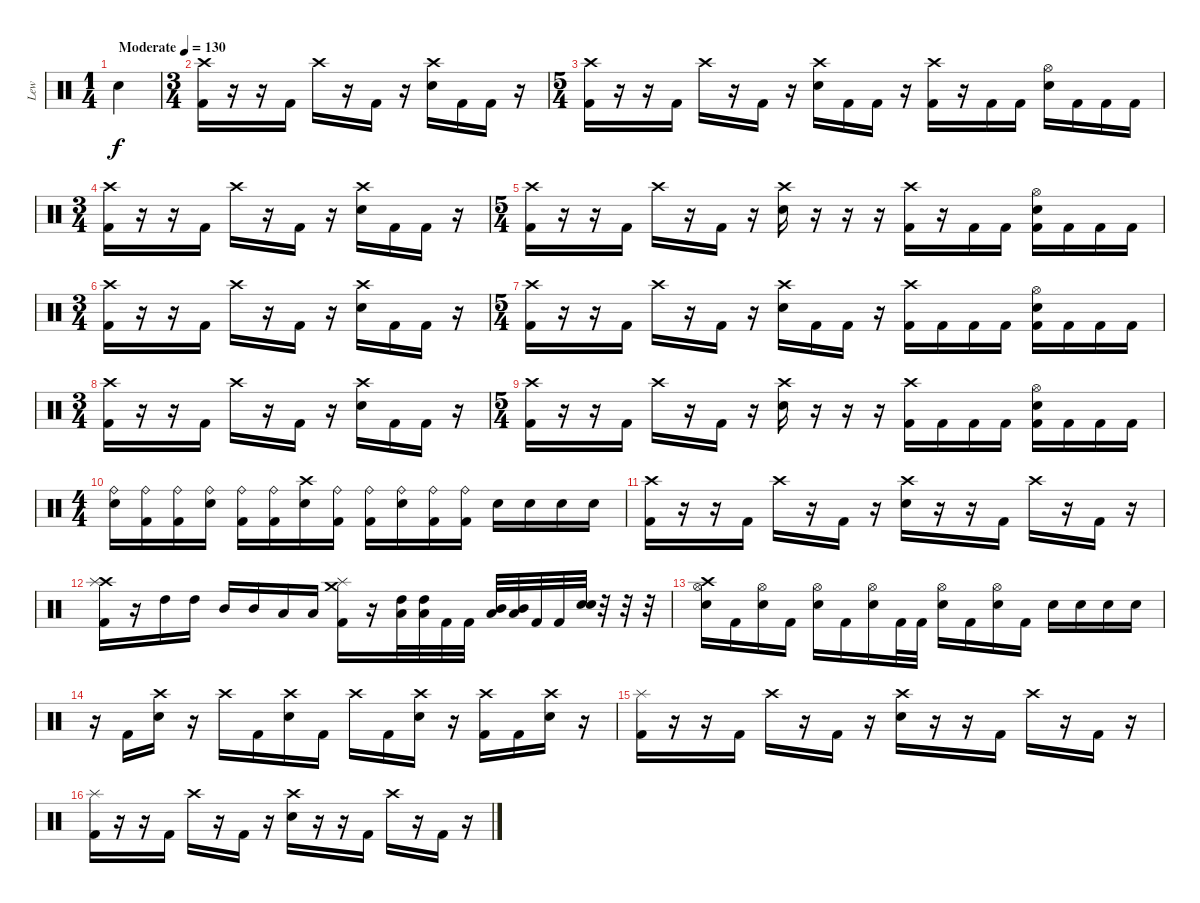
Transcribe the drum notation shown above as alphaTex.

\track ("Lew" "Lew") {instrument percussion}
\staff {score}
\articulation defaults
\ts (1 4)
\tempo (130 "Moderate")
\clef neutral
\ks c "Electric Snare (hit)".4{dy f}
|
\ts (3 4)
("Crash high (hit)" "Kick (hit) 2").16 r.16 r.16 "Kick (hit) 2".16 "Crash high (hit)".16 r.16 "Kick (hit) 2".16 r.16 ("Crash high (hit)" "Electric Snare (hit)").16 "Kick (hit) 2".16 "Kick (hit) 2".16 r.16 |
\ts (5 4)
("Crash high (hit)" "Kick (hit) 2").16 r.16 r.16 "Kick (hit) 2".16 "Crash high (hit)".16 r.16 "Kick (hit) 2".16 r.16 ("Crash high (hit)" "Electric Snare (hit)").16 "Kick (hit) 2".16 "Kick (hit) 2".16 r.16 ("Crash high (hit)" "Kick (hit) 2").16 r.16 "Kick (hit) 2".16 "Kick (hit) 2".16 ("Hi-Hat (open)" "Electric Snare (hit)").16 "Kick (hit) 2".16 "Kick (hit) 2".16 "Kick (hit) 2".16 |
\ts (3 4)
("Crash high (hit)" "Kick (hit) 2").16 r.16 r.16 "Kick (hit) 2".16 "Crash high (hit)".16 r.16 "Kick (hit) 2".16 r.16 ("Crash high (hit)" "Electric Snare (hit)").16 "Kick (hit) 2".16 "Kick (hit) 2".16 r.16 |
\ts (5 4)
("Crash high (hit)" "Kick (hit) 2").16 r.16 r.16 "Kick (hit) 2".16 "Crash high (hit)".16 r.16 "Kick (hit) 2".16 r.16 ("Crash high (hit)" "Electric Snare (hit)").16 r.16 r.16 r.16 ("Crash high (hit)" "Kick (hit) 2").16 r.16 "Kick (hit) 2".16 "Kick (hit) 2".16 ("Hi-Hat (open)" "Electric Snare (hit)" "Kick (hit) 2").16 "Kick (hit) 2".16 "Kick (hit) 2".16 "Kick (hit) 2".16 |
\ts (3 4)
("Crash high (hit)" "Kick (hit) 2").16 r.16 r.16 "Kick (hit) 2".16 "Crash high (hit)".16 r.16 "Kick (hit) 2".16 r.16 ("Crash high (hit)" "Electric Snare (hit)").16 "Kick (hit) 2".16 "Kick (hit) 2".16 r.16 |
\ts (5 4)
("Crash high (hit)" "Kick (hit) 2").16 r.16 r.16 "Kick (hit) 2".16 "Crash high (hit)".16 r.16 "Kick (hit) 2".16 r.16 ("Crash high (hit)" "Electric Snare (hit)").16 "Kick (hit) 2".16 "Kick (hit) 2".16 r.16 ("Crash high (hit)" "Kick (hit) 2").16 "Kick (hit) 2".16 "Kick (hit) 2".16 "Kick (hit) 2".16 ("Hi-Hat (open)" "Electric Snare (hit)" "Kick (hit) 2").16 "Kick (hit) 2".16 "Kick (hit) 2".16 "Kick (hit) 2".16 |
\ts (3 4)
("Crash high (hit)" "Kick (hit) 2").16 r.16 r.16 "Kick (hit) 2".16 "Crash high (hit)".16 r.16 "Kick (hit) 2".16 r.16 ("Crash high (hit)" "Electric Snare (hit)").16 "Kick (hit) 2".16 "Kick (hit) 2".16 r.16 |
\ts (5 4)
("Crash high (hit)" "Kick (hit) 2").16 r.16 r.16 "Kick (hit) 2".16 "Crash high (hit)".16 r.16 "Kick (hit) 2".16 r.16 ("Crash high (hit)" "Electric Snare (hit)").16 r.16 r.16 r.16 ("Crash high (hit)" "Kick (hit) 2").16 "Kick (hit) 2".16 "Kick (hit) 2".16 "Kick (hit) 2".16 ("Hi-Hat (open)" "Electric Snare (hit)" "Kick (hit) 2").16 "Kick (hit) 2".16 "Kick (hit) 2".16 "Kick (hit) 2".16 |
\ts (4 4)
("Ride (bell)" "Electric Snare (hit)").16 ("Ride (bell)" "Kick (hit) 2").16 ("Ride (bell)" "Kick (hit) 2").16 ("Ride (bell)" "Electric Snare (hit)").16 ("Ride (bell)" "Kick (hit) 2").16 ("Ride (bell)" "Kick (hit) 2").16 ("Crash high (hit)" "Electric Snare (hit)").16 ("Ride (bell)" "Kick (hit) 2").16 ("Ride (bell)" "Kick (hit) 2").16 ("Ride (bell)" "Electric Snare (hit)").16 ("Ride (bell)" "Kick (hit) 2").16 ("Ride (bell)" "Kick (hit) 2").16 "Electric Snare (hit)".16 "Electric Snare (hit)".16 "Electric Snare (hit)".16 "Electric Snare (hit)".16 |
("Crash high (hit)" "Kick (hit) 2").16 r.16 r.16 "Kick (hit) 2".16 "Crash high (hit)".16 r.16 "Kick (hit) 2".16 r.16 ("Crash high (hit)" "Electric Snare (hit)").16 r.16 r.16 "Kick (hit) 2".16 "Crash high (hit)".16 r.16 "Kick (hit) 2".16 r.16 |
("Crash high (hit)" "Splash (hit)" "Kick (hit) 2").16 r.16 "High Tom (hit)".16 "High Tom (hit)".16 "Mid Tom (hit)".16 "Mid Tom (hit)".16 "Low Tom (hit)".16 "Low Tom (hit)".16 ("Splash (hit)" "Crash medium (hit)" "Kick (hit) 2").16 r.16 ("Low Tom (hit)" "High Tom (hit)").32 ("Low Tom (hit)" "High Tom (hit)").32 "Kick (hit) 2".32 "Kick (hit) 2".32 ("Low Tom (hit)" "Mid Tom (hit)").32 ("Low Tom (hit)" "Mid Tom (hit)").32 "Kick (hit) 2".32 "Kick (hit) 2".32 ("Electric Snare (hit)" "Electric Snare (hit)").32 r.32 r.32 r.32 |
("Crash high (hit)" "Hi-Hat (open)" "Electric Snare (hit)").16 "Kick (hit) 2".16 ("Hi-Hat (open)" "Electric Snare (hit)").16 "Kick (hit) 2".16 ("Hi-Hat (open)" "Electric Snare (hit)").16 "Kick (hit) 2".16 ("Hi-Hat (open)" "Electric Snare (hit)").16 "Kick (hit) 2".32 "Kick (hit) 2".32 ("Hi-Hat (open)" "Electric Snare (hit)").16 "Kick (hit) 2".16 ("Hi-Hat (open)" "Electric Snare (hit)").16 "Kick (hit) 2".16 "Electric Snare (hit)".16 "Electric Snare (hit)".16 "Electric Snare (hit)".16 "Electric Snare (hit)".16 |
r.16 "Kick (hit) 2".16 ("Crash high (hit)" "Electric Snare (hit)").16 r.16 "Crash high (hit)".16 "Kick (hit) 2".16 ("Crash high (hit)" "Electric Snare (hit)").16 "Kick (hit) 2".16 "Crash high (hit)".16 "Kick (hit) 2".16 ("Crash high (hit)" "Electric Snare (hit)").16 r.16 ("Crash high (hit)" "Kick (hit) 2").16 "Kick (hit) 2".16 ("Crash high (hit)" "Electric Snare (hit)").16 r.16 |
("Splash (hit)" "Kick (hit) 2").16 r.16 r.16 "Kick (hit) 2".16 "Crash high (hit)".16 r.16 "Kick (hit) 2".16 r.16 ("Crash high (hit)" "Electric Snare (hit)").16 r.16 r.16 "Kick (hit) 2".16 "Crash high (hit)".16 r.16 "Kick (hit) 2".16 r.16 |
("Splash (hit)" "Kick (hit) 2").16 r.16 r.16 "Kick (hit) 2".16 "Crash high (hit)".16 r.16 "Kick (hit) 2".16 r.16 ("Crash high (hit)" "Electric Snare (hit)").16 r.16 r.16 "Kick (hit) 2".16 "Crash high (hit)".16 r.16 "Kick (hit) 2".16 r.16
